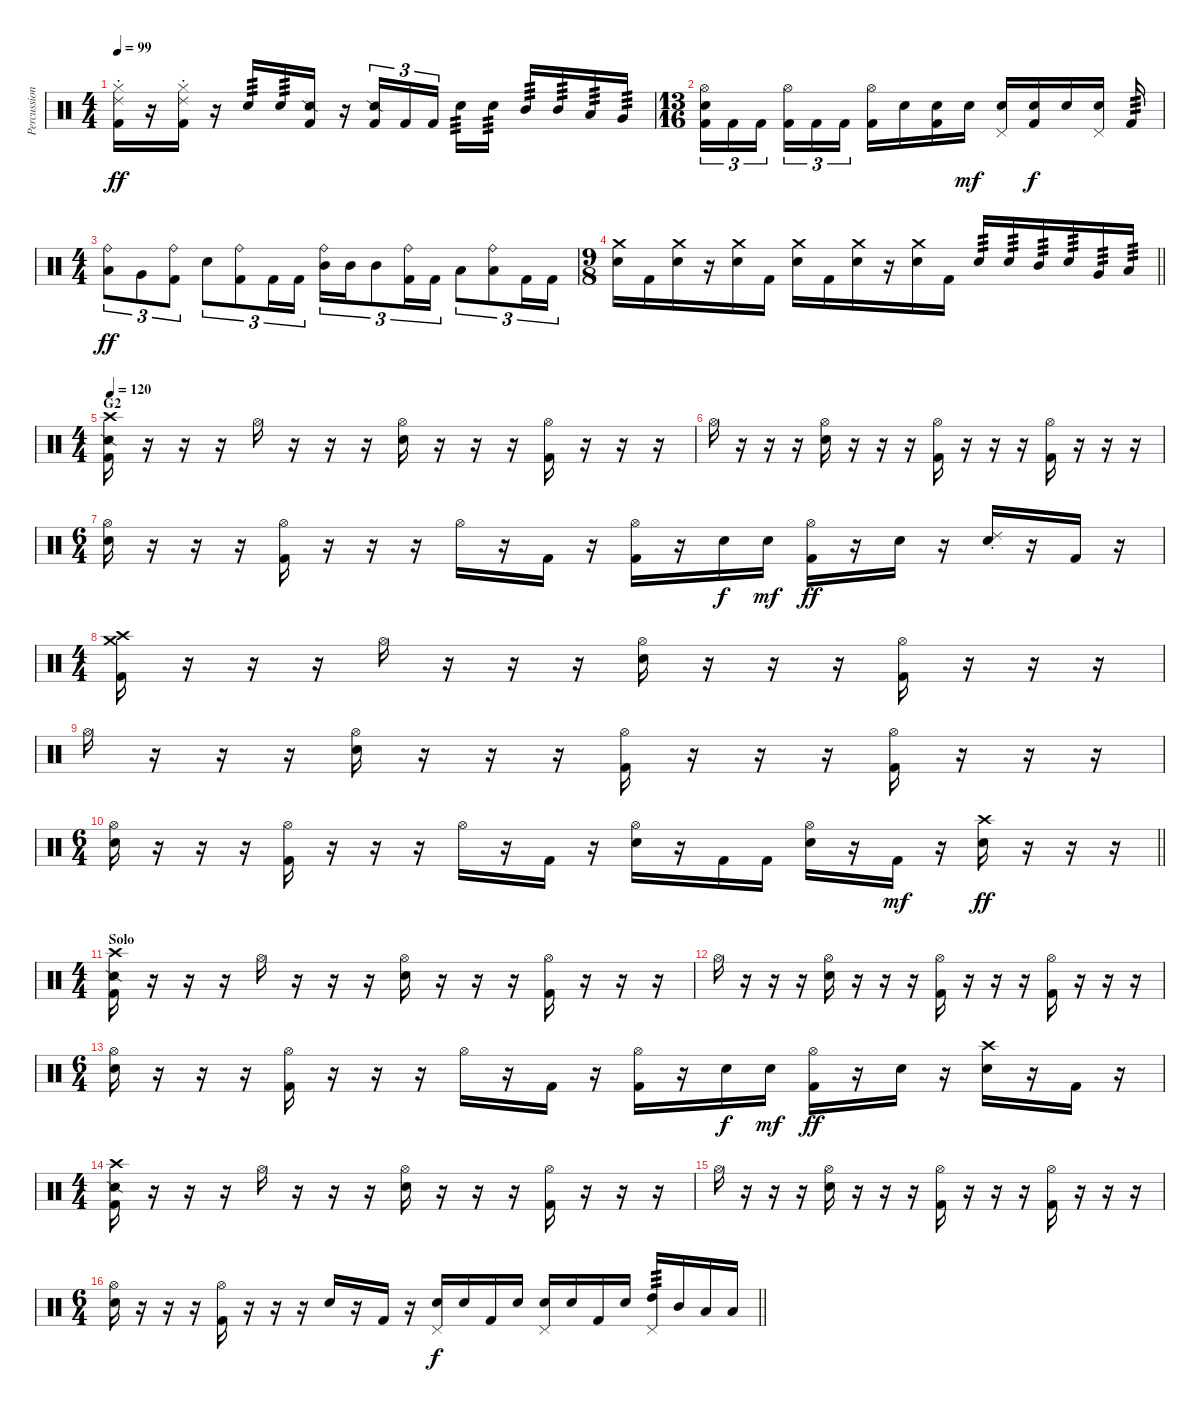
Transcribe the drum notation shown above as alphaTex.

\track ("Percussion" "Percussion") {instrument percussion}
\staff {score}
\articulation defaults
\ts (4 4)
\tempo 99
\clef neutral
\ks c
("Hi-Hat (closed)" "Ride (choke) 2" "Kick (hit) 2").16{dy ff} r.16 ("Hi-Hat (closed)" "Ride (choke) 2" "Kick (hit) 2").16 r.16 "Snare (hit) 2".16{tp 3} "Snare (hit) 2".16{tp 3} ("Snare (side stick) 2" "Kick (hit) 2").16 r.16 ("Snare (side stick) 2" "Kick (hit) 2").16{tu (3 2)} "Kick (hit) 2".16{tu (3 2)} "Kick (hit) 2".16{tu (3 2) beam splitsecondary} "Snare (hit) 2".16{tp 3} "Snare (hit) 2".16{tp 3} "Mid Tom (hit)".16{tp 3} "Mid Tom (hit)".16{tp 3} "Low Tom (hit)".16{tp 3} "Very Low Tom (hit)".16{tp 3} |
\ts (13 16)
("Hi-Hat (open)" "Snare (hit) 2" "Kick (hit) 2").16{tu (3 2)} "Kick (hit) 2".16{tu (3 2)} "Kick (hit) 2".16{tu (3 2)} ("Hi-Hat (open)" "Kick (hit) 2").16{tu (3 2)} "Kick (hit) 2".16{tu (3 2)} "Kick (hit) 2".16{tu (3 2)} ("Hi-Hat (open)" "Kick (hit) 2").16 "Snare (hit) 2".16 ("Snare (hit)" "Kick (hit) 2").16 "Snare (hit) 2".16{dy mf} ("Pedal Hi-Hat (hit)" "Snare (hit) 2").16 ("Snare (hit)" "Kick (hit) 2").16{dy f} "Snare (hit) 2".16 ("Pedal Hi-Hat (hit)" "Snare (hit) 2").16 "Kick (hit) 2".16{tp 3} |
\ts (4 4)
("Ride (bell)" "Low Tom (hit)").8{tu (3 2) dy ff} "Very Low Tom (hit)".8{tu (3 2)} ("Ride (bell)" "Kick (hit) 2").8{tu (3 2)} "Snare (hit) 2".8{tu (3 2)} ("Ride (bell)" "Kick (hit) 2").8{tu (3 2)} "Kick (hit) 2".16{tu (3 2)} "Kick (hit) 2".16{tu (3 2)} ("Ride (bell)" "Mid Tom (hit)").16{tu (3 2)} "Mid Tom (hit)".16{tu (3 2)} "Mid Tom (hit)".8{tu (3 2)} ("Ride (bell)" "Kick (hit) 2").16{tu (3 2)} "Kick (hit) 2".16{tu (3 2)} "Low Tom (hit)".8{tu (3 2)} ("Ride (bell)" "Low Tom (hit)").8{tu (3 2)} "Kick (hit) 2".16{tu (3 2)} "Kick (hit) 2".16{tu (3 2)} |
\ts (9 8)
\barLineRight lightlight
("Crash medium (hit)" "Snare (hit) 2").16 "Kick (hit) 2".16 ("Crash medium (hit)" "Snare (hit) 2").16 r.16 ("Crash medium (hit)" "Snare (hit) 2").16 "Kick (hit) 2".16 ("Crash medium (hit)" "Snare (hit) 2").16 "Kick (hit) 2".16 ("Crash medium (hit)" "Snare (hit) 2").16 r.16 ("Crash medium (hit)" "Snare (hit) 2").16 "Kick (hit) 2".16 "Snare (hit) 2".16{tp 3} "Snare (hit) 2".16{tp 3} "Mid Tom (hit)".16{tp 3} "Snare (hit) 2".16{tp 3} "Very Low Tom (hit)".16{tp 3} "Low Floor Tom (hit)".16{tp 3} |
\ts (4 4)
\section ("" "G2")
\tempo 120
("Snare (side stick) 2" "Crash high (hit)" "Kick (hit) 2").16 r.16 r.16 r.16 "Hi-Hat (open)".16 r.16 r.16 r.16 ("Hi-Hat (open)" "Snare (hit) 2").16 r.16 r.16 r.16 ("Hi-Hat (open)" "Kick (hit) 2").16 r.16 r.16 r.16 |
"Hi-Hat (open)".16 r.16 r.16 r.16 ("Hi-Hat (open)" "Snare (hit) 2").16 r.16 r.16 r.16 ("Hi-Hat (open)" "Kick (hit) 2").16 r.16 r.16 r.16 ("Hi-Hat (open)" "Kick (hit) 2").16 r.16 r.16 r.16 |
\ts (6 4)
("Hi-Hat (open)" "Snare (hit) 2").16 r.16 r.16 r.16 ("Hi-Hat (open)" "Kick (hit) 2").16 r.16 r.16 r.16 "Hi-Hat (open)".16 r.16 "Kick (hit) 2".16 r.16 ("Hi-Hat (open)" "Kick (hit) 2").16 r.16 "Snare (hit) 2".16{dy f} "Snare (hit) 2".16{dy mf} ("Hi-Hat (open)" "Kick (hit) 2").16{dy ff} r.16 "Snare (hit) 2".16 r.16 ("Ride (choke) 2" "Snare (hit) 2").16 r.16 "Kick (hit) 2".16 r.16 |
\ts (4 4)
("Crash medium (hit)" "Crash high (hit)" "Kick (hit) 2").16 r.16 r.16 r.16 "Hi-Hat (open)".16 r.16 r.16 r.16 ("Hi-Hat (open)" "Snare (hit) 2").16 r.16 r.16 r.16 ("Hi-Hat (open)" "Kick (hit) 2").16 r.16 r.16 r.16 |
"Hi-Hat (open)".16 r.16 r.16 r.16 ("Hi-Hat (open)" "Snare (hit) 2").16 r.16 r.16 r.16 ("Hi-Hat (open)" "Kick (hit) 2").16 r.16 r.16 r.16 ("Hi-Hat (open)" "Kick (hit) 2").16 r.16 r.16 r.16 |
\ts (6 4)
\barLineRight lightlight
("Hi-Hat (open)" "Snare (hit) 2").16 r.16 r.16 r.16 ("Hi-Hat (open)" "Kick (hit) 2").16 r.16 r.16 r.16 "Hi-Hat (open)".16 r.16 "Kick (hit) 2".16 r.16 ("Hi-Hat (open)" "Snare (hit) 2").16 r.16 "Kick (hit) 2".16 "Kick (hit) 2".16 ("Hi-Hat (open)" "Snare (hit) 2").16 r.16 "Kick (hit) 2".16{dy mf} r.16 ("Crash high (hit)" "Snare (hit) 2").16{dy ff} r.16 r.16 r.16 |
\ts (4 4)
\section ("" "Solo")
("Snare (side stick) 2" "Crash high (hit)" "Kick (hit) 2").16 r.16 r.16 r.16 "Hi-Hat (open)".16 r.16 r.16 r.16 ("Hi-Hat (open)" "Snare (hit) 2").16 r.16 r.16 r.16 ("Hi-Hat (open)" "Kick (hit) 2").16 r.16 r.16 r.16 |
"Hi-Hat (open)".16 r.16 r.16 r.16 ("Hi-Hat (open)" "Snare (hit) 2").16 r.16 r.16 r.16 ("Hi-Hat (open)" "Kick (hit) 2").16 r.16 r.16 r.16 ("Hi-Hat (open)" "Kick (hit) 2").16 r.16 r.16 r.16 |
\ts (6 4)
("Hi-Hat (open)" "Snare (hit) 2").16 r.16 r.16 r.16 ("Hi-Hat (open)" "Kick (hit) 2").16 r.16 r.16 r.16 "Hi-Hat (open)".16 r.16 "Kick (hit) 2".16 r.16 ("Hi-Hat (open)" "Kick (hit) 2").16 r.16 "Snare (hit) 2".16{dy f} "Snare (hit) 2".16{dy mf} ("Hi-Hat (open)" "Kick (hit) 2").16{dy ff} r.16 "Snare (hit) 2".16 r.16 ("Crash high (hit)" "Snare (hit) 2").16 r.16 "Kick (hit) 2".16 r.16 |
\ts (4 4)
("Snare (side stick) 2" "Crash high (hit)" "Kick (hit) 2").16 r.16 r.16 r.16 "Hi-Hat (open)".16 r.16 r.16 r.16 ("Hi-Hat (open)" "Snare (hit) 2").16 r.16 r.16 r.16 ("Hi-Hat (open)" "Kick (hit) 2").16 r.16 r.16 r.16 |
"Hi-Hat (open)".16 r.16 r.16 r.16 ("Hi-Hat (open)" "Snare (hit) 2").16 r.16 r.16 r.16 ("Hi-Hat (open)" "Kick (hit) 2").16 r.16 r.16 r.16 ("Hi-Hat (open)" "Kick (hit) 2").16 r.16 r.16 r.16 |
\ts (6 4)
\barLineRight lightlight
("Hi-Hat (open)" "Snare (hit) 2").16 r.16 r.16 r.16 ("Hi-Hat (open)" "Kick (hit) 2").16 r.16 r.16 r.16 "Snare (hit)".16 r.16 "Kick (hit) 2".16 r.16 ("Pedal Hi-Hat (hit)" "Snare (hit) 2").16{dy f} "Snare (hit) 2".16 "Kick (hit) 2".16 "Snare (hit) 2".16 ("Pedal Hi-Hat (hit)" "Snare (hit) 2").16 "Snare (hit) 2".16 "Kick (hit) 2".16 "Snare (hit) 2".16 ("Pedal Hi-Hat (hit)" "High Tom (hit)").16{tp 3} "Mid Tom (hit)".16 "Low Tom (hit)".16 "Low Tom (hit)".16
